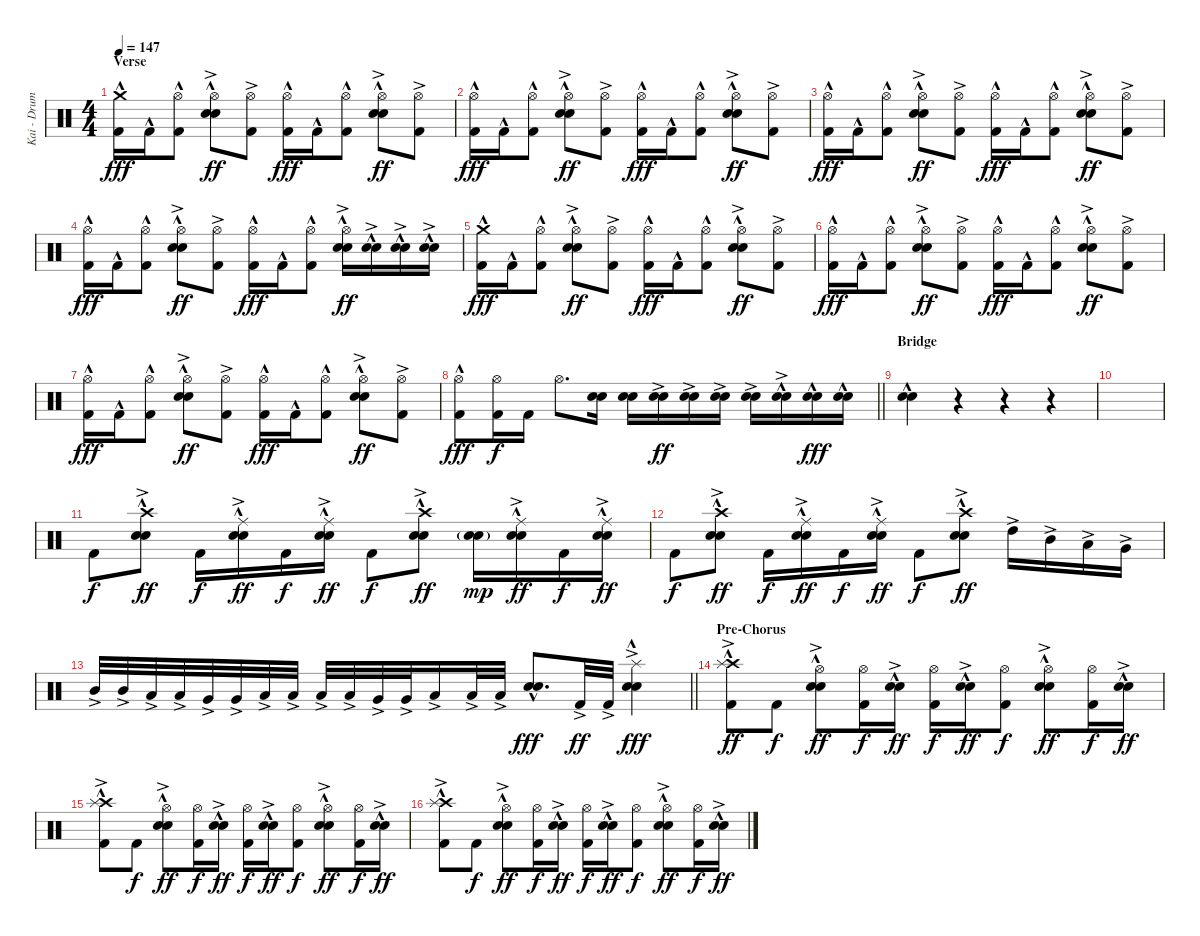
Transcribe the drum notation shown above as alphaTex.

\track ("Kai - Drums" "Kai - Drum") {instrument percussion}
\staff {score}
\articulation defaults
\ts (4 4)
\section ("" "Verse")
\tempo 147
\clef neutral
\ks c
("Crash medium (hit)"{hac} "Kick (hit) 2"{hac}).16{dy fff} "Kick (hit) 2"{hac}.16 ("Hi-Hat (open)" "Kick (hit) 2"{hac}).8 ("Hi-Hat (open)" "Electric Snare (hit)"{hac} "Snare (hit) 2"{ac}).8{dy ff} ("Hi-Hat (open)" "Kick (hit) 2"{ac}).8 ("Hi-Hat (open)" "Kick (hit) 2"{hac}).16{dy fff} "Kick (hit) 2"{hac}.16 ("Hi-Hat (open)" "Kick (hit) 2"{hac}).8 ("Hi-Hat (open)" "Electric Snare (hit)"{hac} "Snare (hit) 2"{ac}).8{dy ff} ("Hi-Hat (open)" "Kick (hit) 2"{ac}).8 |
("Hi-Hat (open)" "Kick (hit) 2"{hac}).16{dy fff} "Kick (hit) 2"{hac}.16 ("Hi-Hat (open)" "Kick (hit) 2"{hac}).8 ("Hi-Hat (open)" "Electric Snare (hit)"{hac} "Snare (hit) 2"{ac}).8{dy ff} ("Hi-Hat (open)" "Kick (hit) 2"{ac}).8 ("Hi-Hat (open)" "Kick (hit) 2"{hac}).16{dy fff} "Kick (hit) 2"{hac}.16 ("Hi-Hat (open)" "Kick (hit) 2"{hac}).8 ("Hi-Hat (open)" "Electric Snare (hit)"{hac} "Snare (hit) 2"{ac}).8{dy ff} ("Hi-Hat (open)" "Kick (hit) 2"{ac}).8 |
("Hi-Hat (open)" "Kick (hit) 2"{hac}).16{dy fff} "Kick (hit) 2"{hac}.16 ("Hi-Hat (open)" "Kick (hit) 2"{hac}).8 ("Hi-Hat (open)" "Electric Snare (hit)"{hac} "Snare (hit) 2"{ac}).8{dy ff} ("Hi-Hat (open)" "Kick (hit) 2"{ac}).8 ("Hi-Hat (open)" "Kick (hit) 2"{hac}).16{dy fff} "Kick (hit) 2"{hac}.16 ("Hi-Hat (open)" "Kick (hit) 2"{hac}).8 ("Hi-Hat (open)" "Electric Snare (hit)"{hac} "Snare (hit) 2"{ac}).8{dy ff} ("Hi-Hat (open)" "Kick (hit) 2"{ac}).8 |
("Hi-Hat (open)" "Kick (hit) 2"{hac}).16{dy fff} "Kick (hit) 2"{hac}.16 ("Hi-Hat (open)" "Kick (hit) 2"{hac}).8 ("Hi-Hat (open)" "Electric Snare (hit)"{hac} "Snare (hit) 2"{ac}).8{dy ff} ("Hi-Hat (open)" "Kick (hit) 2"{ac}).8 ("Hi-Hat (open)" "Kick (hit) 2"{hac}).16{dy fff} "Kick (hit) 2"{hac}.16 ("Hi-Hat (open)" "Kick (hit) 2"{hac}).8 ("Hi-Hat (open)" "Electric Snare (hit)"{hac} "Snare (hit) 2"{ac}).16{dy ff} ("Electric Snare (hit)"{hac} "Snare (hit) 2"{ac}).16 ("Electric Snare (hit)"{hac} "Snare (hit) 2"{ac}).16 ("Electric Snare (hit)"{hac} "Snare (hit) 2"{ac}).16 |
("Crash medium (hit)"{hac} "Kick (hit) 2"{hac}).16{dy fff} "Kick (hit) 2"{hac}.16 ("Hi-Hat (open)" "Kick (hit) 2"{hac}).8 ("Hi-Hat (open)" "Electric Snare (hit)"{hac} "Snare (hit) 2"{ac}).8{dy ff} ("Hi-Hat (open)" "Kick (hit) 2"{ac}).8 ("Hi-Hat (open)" "Kick (hit) 2"{hac}).16{dy fff} "Kick (hit) 2"{hac}.16 ("Hi-Hat (open)" "Kick (hit) 2"{hac}).8 ("Hi-Hat (open)" "Electric Snare (hit)"{hac} "Snare (hit) 2"{ac}).8{dy ff} ("Hi-Hat (open)" "Kick (hit) 2"{ac}).8 |
("Hi-Hat (open)" "Kick (hit) 2"{hac}).16{dy fff} "Kick (hit) 2"{hac}.16 ("Hi-Hat (open)" "Kick (hit) 2"{hac}).8 ("Hi-Hat (open)" "Electric Snare (hit)"{hac} "Snare (hit) 2"{ac}).8{dy ff} ("Hi-Hat (open)" "Kick (hit) 2"{ac}).8 ("Hi-Hat (open)" "Kick (hit) 2"{hac}).16{dy fff} "Kick (hit) 2"{hac}.16 ("Hi-Hat (open)" "Kick (hit) 2"{hac}).8 ("Hi-Hat (open)" "Electric Snare (hit)"{hac} "Snare (hit) 2"{ac}).8{dy ff} ("Hi-Hat (open)" "Kick (hit) 2"{ac}).8 |
("Hi-Hat (open)" "Kick (hit) 2"{hac}).16{dy fff} "Kick (hit) 2"{hac}.16 ("Hi-Hat (open)" "Kick (hit) 2"{hac}).8 ("Hi-Hat (open)" "Electric Snare (hit)"{hac} "Snare (hit) 2"{ac}).8{dy ff} ("Hi-Hat (open)" "Kick (hit) 2"{ac}).8 ("Hi-Hat (open)" "Kick (hit) 2"{hac}).16{dy fff} "Kick (hit) 2"{hac}.16 ("Hi-Hat (open)" "Kick (hit) 2"{hac}).8 ("Hi-Hat (open)" "Electric Snare (hit)"{hac} "Snare (hit) 2"{ac}).8{dy ff} ("Hi-Hat (open)" "Kick (hit) 2"{ac}).8 |
\barLineRight lightlight
("Hi-Hat (open)" "Kick (hit) 2"{hac}).8{dy fff} ("Hi-Hat (open)" "Kick (hit) 2").16{dy f} "Kick (hit) 2".16 "Hi-Hat (open)".8{d} ("Electric Snare (hit)" "Snare (hit) 2").16 ("Electric Snare (hit)" "Snare (hit) 2").16 ("Electric Snare (hit)"{ac} "Snare (hit) 2").16{dy ff} ("Electric Snare (hit)"{ac} "Snare (hit) 2").16 ("Electric Snare (hit)"{ac} "Snare (hit) 2"{ac}).16 ("Electric Snare (hit)"{ac} "Snare (hit) 2"{ac}).16 ("Electric Snare (hit)"{hac} "Snare (hit) 2"{ac}).16 ("Electric Snare (hit)"{hac} "Snare (hit) 2"{hac}).16{dy fff} ("Electric Snare (hit)"{hac} "Snare (hit) 2"{hac}).16 |
\section ("" "Bridge")
("Electric Snare (hit)"{hac} "Snare (hit) 2"{hac}).4 r.4 r.4 r.4 |
|
"Kick (hit) 2".8{dy f} ("Crash high (hit)" "Electric Snare (hit)"{hac} "Snare (hit) 2"{ac}).8{dy ff} "Kick (hit) 2".16{dy f} ("Ride (middle)" "Electric Snare (hit)"{hac} "Snare (hit) 2"{ac}).16{dy ff} "Kick (hit) 2".16{dy f} ("Ride (middle)" "Electric Snare (hit)"{hac} "Snare (hit) 2"{ac}).16{dy ff} "Kick (hit) 2".8{dy f} ("Crash high (hit)" "Electric Snare (hit)"{hac} "Snare (hit) 2"{ac}).8{dy ff} ("Electric Snare (hit)"{g} "Snare (hit) 2"{g}).16{dy mp} ("Ride (middle)" "Electric Snare (hit)"{hac} "Snare (hit) 2"{ac}).16{dy ff} "Kick (hit) 2".16{dy f} ("Ride (middle)" "Electric Snare (hit)"{hac} "Snare (hit) 2"{ac}).16{dy ff} |
"Kick (hit) 2".8{dy f} ("Crash high (hit)" "Electric Snare (hit)"{hac} "Snare (hit) 2"{ac}).8{dy ff} "Kick (hit) 2".16{dy f} ("Ride (middle)" "Electric Snare (hit)"{hac} "Snare (hit) 2"{ac}).16{dy ff} "Kick (hit) 2".16{dy f} ("Ride (middle)" "Electric Snare (hit)"{hac} "Snare (hit) 2"{ac}).16{dy ff} "Kick (hit) 2".8{dy f} ("Crash high (hit)" "Electric Snare (hit)"{hac} "Snare (hit) 2"{ac}).8{dy ff} "High Tom (hit)"{ac}.16 "Mid Tom (hit)"{ac}.16 "Low Tom (hit)"{ac}.16 "Very Low Tom (hit)"{ac}.16 |
\barLineRight lightlight "Mid Tom (hit)"{ac}.32 "Mid Tom (hit)"{ac}.32 "Low Tom (hit)"{ac}.32 "Low Tom (hit)"{ac}.32 "Very Low Tom (hit)"{ac}.32 "Very Low Tom (hit)"{ac}.32 "Low Floor Tom (hit)"{ac}.32 "Low Floor Tom (hit)"{ac}.32 "Low Tom (hit)"{ac}.32 "Low Tom (hit)"{ac}.32 "Very Low Tom (hit)"{ac}.32 "Very Low Tom (hit)"{ac}.32 "Low Floor Tom (hit)"{ac}.16 "Low Floor Tom (hit)"{ac}.32 "Low Floor Tom (hit)"{ac}.32
("Electric Snare (hit)"{hac} "Snare (hit) 2"{hac}).8{d dy fff} "Kick (hit) 2"{ac}.32{dy ff} "Kick (hit) 2"{ac}.32 ("Splash (hit)"{ac} "Electric Snare (hit)"{hac} "Snare (hit) 2"{hac}).4{dy fff} |
\section ("" "Pre-Chorus")
("Crash high (hit)"{hac} "Splash (hit)"{ac} "Kick (hit) 2").8{dy ff} "Kick (hit) 2".8{dy f} ("Hi-Hat (open)" "Electric Snare (hit)"{hac} "Snare (hit) 2"{ac}).8{dy ff} ("Hi-Hat (open)" "Kick (hit) 2").16{dy f} ("Electric Snare (hit)"{hac} "Snare (hit) 2"{ac}).16{dy ff} ("Hi-Hat (open)" "Kick (hit) 2").16{dy f} ("Electric Snare (hit)"{hac} "Snare (hit) 2"{ac}).16{dy ff} ("Hi-Hat (open)" "Kick (hit) 2").8{dy f} ("Hi-Hat (open)" "Electric Snare (hit)"{hac} "Snare (hit) 2"{ac}).8{dy ff} ("Hi-Hat (open)" "Kick (hit) 2").16{dy f} ("Electric Snare (hit)"{hac} "Snare (hit) 2"{ac}).16{dy ff} |
("Crash high (hit)"{hac} "Splash (hit)"{ac} "Kick (hit) 2").8 "Kick (hit) 2".8{dy f} ("Hi-Hat (open)" "Electric Snare (hit)"{hac} "Snare (hit) 2"{ac}).8{dy ff} ("Hi-Hat (open)" "Kick (hit) 2").16{dy f} ("Electric Snare (hit)"{hac} "Snare (hit) 2"{ac}).16{dy ff} ("Hi-Hat (open)" "Kick (hit) 2").16{dy f} ("Electric Snare (hit)"{hac} "Snare (hit) 2"{ac}).16{dy ff} ("Hi-Hat (open)" "Kick (hit) 2").8{dy f} ("Hi-Hat (open)" "Electric Snare (hit)"{hac} "Snare (hit) 2"{ac}).8{dy ff} ("Hi-Hat (open)" "Kick (hit) 2").16{dy f} ("Electric Snare (hit)"{hac} "Snare (hit) 2"{ac}).16{dy ff} |
("Crash high (hit)"{hac} "Splash (hit)"{ac} "Kick (hit) 2").8 "Kick (hit) 2".8{dy f} ("Hi-Hat (open)" "Electric Snare (hit)"{hac} "Snare (hit) 2"{ac}).8{dy ff} ("Hi-Hat (open)" "Kick (hit) 2").16{dy f} ("Electric Snare (hit)"{hac} "Snare (hit) 2"{ac}).16{dy ff} ("Hi-Hat (open)" "Kick (hit) 2").16{dy f} ("Electric Snare (hit)"{hac} "Snare (hit) 2"{ac}).16{dy ff} ("Hi-Hat (open)" "Kick (hit) 2").8{dy f} ("Hi-Hat (open)" "Electric Snare (hit)"{hac} "Snare (hit) 2"{ac}).8{dy ff} ("Hi-Hat (open)" "Kick (hit) 2").16{dy f} ("Electric Snare (hit)"{hac} "Snare (hit) 2"{ac}).16{dy ff}
